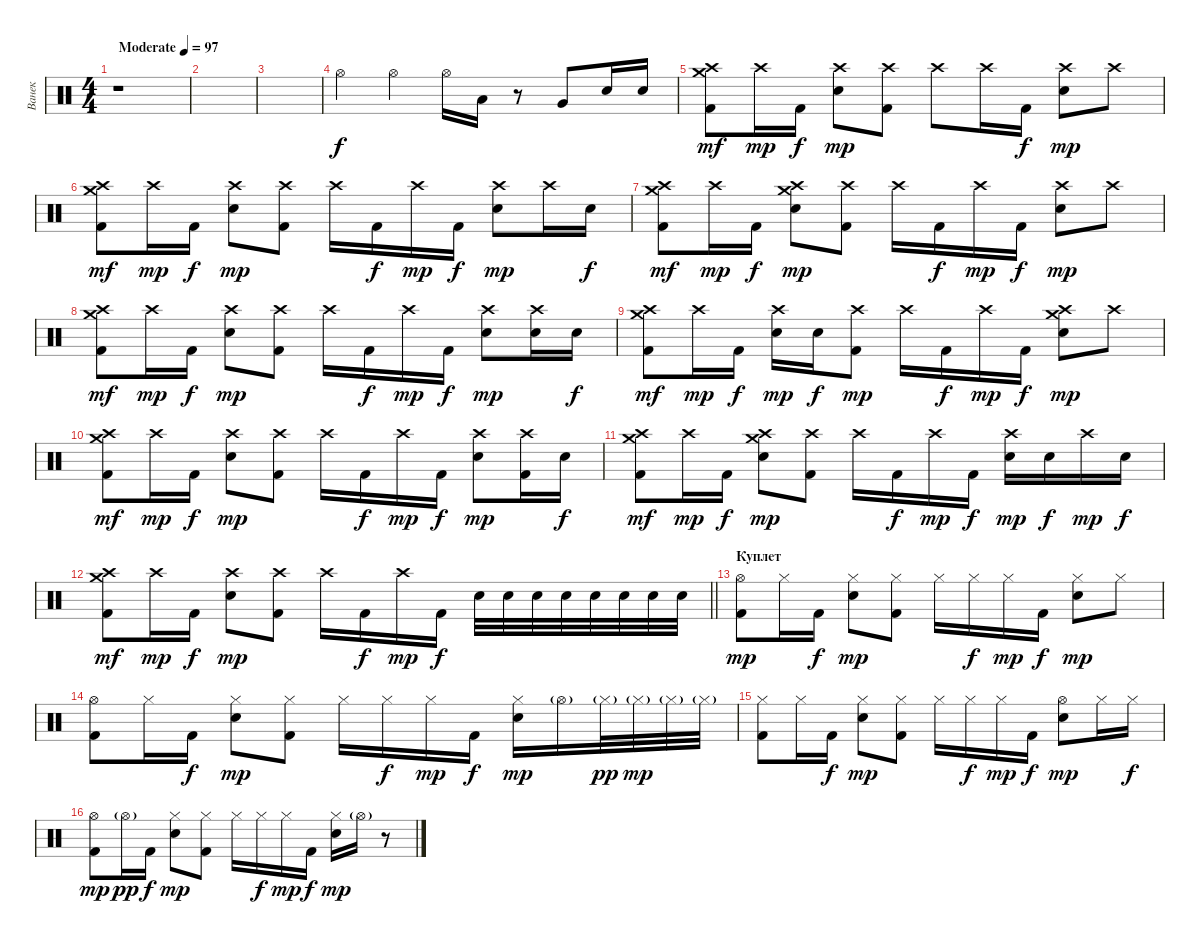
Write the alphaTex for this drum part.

\track ("Ванек" "Ванек") {instrument percussion}
\staff {score}
\articulation defaults
\ts (4 4)
\tempo (97 "Moderate")
\clef neutral
\ks c
r.1{dy f} |
|
|
"Hi-Hat (open)".4 "Hi-Hat (open)".4 "Hi-Hat (open)".16 "Low Tom (hit)".16 r.8 "Very Low Tom (hit)".8 "Snare (hit) 2".16 "Snare (hit) 2".16 |
("Crash high (hit)" "Crash medium (hit)" "Kick (hit) 2").8{dy mf} "Crash high (hit)".16{dy mp} "Kick (hit) 2".16{dy f} ("Crash high (hit)" "Snare (hit) 2").8{dy mp} ("Crash high (hit)" "Kick (hit) 2").8 "Crash high (hit)".8 "Crash high (hit)".16 "Kick (hit) 2".16{dy f} ("Crash high (hit)" "Snare (hit) 2").8{dy mp} "Crash high (hit)".8 |
("Crash high (hit)" "Crash medium (hit)" "Kick (hit) 2").8{dy mf} "Crash high (hit)".16{dy mp} "Kick (hit) 2".16{dy f} ("Crash high (hit)" "Snare (hit) 2").8{dy mp} ("Crash high (hit)" "Kick (hit) 2").8 "Crash high (hit)".16 "Kick (hit) 2".16{dy f} "Crash high (hit)".16{dy mp} "Kick (hit) 2".16{dy f} ("Crash high (hit)" "Snare (hit) 2").8{dy mp} "Crash high (hit)".16 "Snare (hit) 2".16{dy f} |
("Crash high (hit)" "Crash medium (hit)" "Kick (hit) 2").8{dy mf} "Crash high (hit)".16{dy mp} "Kick (hit) 2".16{dy f} ("Crash high (hit)" "Crash medium (hit)" "Snare (hit) 2").8{dy mp} ("Crash high (hit)" "Kick (hit) 2").8 "Crash high (hit)".16 "Kick (hit) 2".16{dy f} "Crash high (hit)".16{dy mp} "Kick (hit) 2".16{dy f} ("Crash high (hit)" "Snare (hit) 2").8{dy mp} "Crash high (hit)".8 |
("Crash high (hit)" "Crash medium (hit)" "Kick (hit) 2").8{dy mf} "Crash high (hit)".16{dy mp} "Kick (hit) 2".16{dy f} ("Crash high (hit)" "Snare (hit) 2").8{dy mp} ("Crash high (hit)" "Kick (hit) 2").8 "Crash high (hit)".16 "Kick (hit) 2".16{dy f} "Crash high (hit)".16{dy mp} "Kick (hit) 2".16{dy f} ("Crash high (hit)" "Snare (hit) 2").8{dy mp} ("Crash high (hit)" "Snare (hit) 2").16 "Snare (hit) 2".16{dy f} |
("Crash high (hit)" "Crash medium (hit)" "Kick (hit) 2").8{dy mf} "Crash high (hit)".16{dy mp} "Kick (hit) 2".16{dy f} ("Crash high (hit)" "Snare (hit) 2").16{dy mp} "Snare (hit) 2".16{dy f} ("Crash high (hit)" "Kick (hit) 2").8{dy mp} "Crash high (hit)".16 "Kick (hit) 2".16{dy f} "Crash high (hit)".16{dy mp} "Kick (hit) 2".16{dy f} ("Crash high (hit)" "Crash medium (hit)" "Snare (hit) 2").8{dy mp} "Crash high (hit)".8 |
("Crash high (hit)" "Crash medium (hit)" "Kick (hit) 2").8{dy mf} "Crash high (hit)".16{dy mp} "Kick (hit) 2".16{dy f} ("Crash high (hit)" "Snare (hit) 2").8{dy mp} ("Crash high (hit)" "Kick (hit) 2").8 "Crash high (hit)".16 "Kick (hit) 2".16{dy f} "Crash high (hit)".16{dy mp} "Kick (hit) 2".16{dy f} ("Crash high (hit)" "Snare (hit) 2").8{dy mp} ("Crash high (hit)" "Kick (hit) 2").16 "Snare (hit) 2".16{dy f} |
("Crash high (hit)" "Crash medium (hit)" "Kick (hit) 2").8{dy mf} "Crash high (hit)".16{dy mp} "Kick (hit) 2".16{dy f} ("Crash high (hit)" "Crash medium (hit)" "Snare (hit) 2").8{dy mp} ("Crash high (hit)" "Kick (hit) 2").8 "Crash high (hit)".16 "Kick (hit) 2".16{dy f} "Crash high (hit)".16{dy mp} "Kick (hit) 2".16{dy f} ("Crash high (hit)" "Snare (hit) 2").16{dy mp} "Snare (hit) 2".16{dy f} "Crash high (hit)".16{dy mp} "Snare (hit) 2".16{dy f} |
\barLineRight lightlight
("Crash high (hit)" "Crash medium (hit)" "Kick (hit) 2").8{dy mf} "Crash high (hit)".16{dy mp} "Kick (hit) 2".16{dy f} ("Crash high (hit)" "Snare (hit) 2").8{dy mp} ("Crash high (hit)" "Kick (hit) 2").8 "Crash high (hit)".16 "Kick (hit) 2".16{dy f} "Crash high (hit)".16{dy mp} "Kick (hit) 2".16{dy f} "Snare (hit) 2".32 "Snare (hit) 2".32 "Snare (hit) 2".32 "Snare (hit) 2".32 "Snare (hit) 2".32 "Snare (hit) 2".32 "Snare (hit) 2".32 "Snare (hit) 2".32 |
\section ("" "Куплет")
("Hi-Hat (open)" "Kick (hit) 2").8{dy mp} "Hi-Hat (closed)".16 "Kick (hit) 2".16{dy f} ("Hi-Hat (closed)" "Snare (hit) 2").8{dy mp} ("Hi-Hat (closed)" "Kick (hit) 2").8 "Hi-Hat (closed)".16 "Hi-Hat (closed)".16{dy f} "Hi-Hat (closed)".16{dy mp} "Kick (hit) 2".16{dy f} ("Hi-Hat (closed)" "Snare (hit) 2").8{dy mp} "Hi-Hat (closed)".8 |
("Hi-Hat (open)" "Kick (hit) 2").8 "Hi-Hat (closed)".16 "Kick (hit) 2".16{dy f} ("Hi-Hat (closed)" "Snare (hit) 2").8{dy mp} ("Hi-Hat (closed)" "Kick (hit) 2").8 "Hi-Hat (closed)".16 "Hi-Hat (closed)".16{dy f} "Hi-Hat (closed)".16{dy mp} "Kick (hit) 2".16{dy f} ("Hi-Hat (closed)" "Snare (hit) 2").16{dy mp} "Hi-Hat (open)"{g}.16 "Hi-Hat (closed)"{g}.32{dy pp} "Hi-Hat (closed)"{g}.32{dy mp} "Hi-Hat (closed)"{g}.32 "Hi-Hat (closed)"{g}.32 |
("Hi-Hat (closed)" "Kick (hit) 2").8 "Hi-Hat (closed)".16 "Kick (hit) 2".16{dy f} ("Hi-Hat (closed)" "Snare (hit) 2").8{dy mp} ("Hi-Hat (closed)" "Kick (hit) 2").8 "Hi-Hat (closed)".16 "Hi-Hat (closed)".16{dy f} "Hi-Hat (closed)".16{dy mp} "Kick (hit) 2".16{dy f} ("Hi-Hat (open)" "Snare (hit) 2").8{dy mp} "Hi-Hat (closed)".16 "Hi-Hat (closed)".16{dy f} |
("Hi-Hat (open)" "Kick (hit) 2").8{dy mp} "Hi-Hat (open)"{g}.16{dy pp} "Kick (hit) 2".16{dy f} ("Hi-Hat (closed)" "Snare (hit) 2").8{dy mp} ("Hi-Hat (closed)" "Kick (hit) 2").8 "Hi-Hat (closed)".16 "Hi-Hat (closed)".16{dy f} "Hi-Hat (closed)".16{dy mp} "Kick (hit) 2".16{dy f} ("Hi-Hat (closed)" "Snare (hit) 2").16{dy mp} "Hi-Hat (open)"{g}.16 r.8
